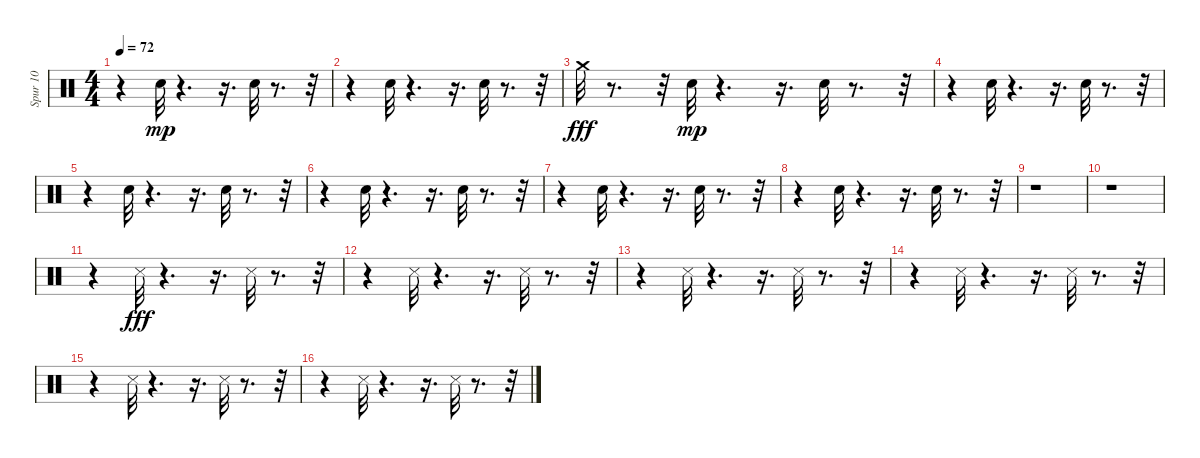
\track ("Spur 10" "Spur 10") {instrument percussion}
\staff {score}
\articulation defaults
\ts (4 4)
\tempo 72
\clef neutral
\ks c
r.4{dy mp} "Snare (hit) 2".32 r.4{d} r.16{d} "Snare (hit) 2".32 r.8{d} r.32 |
r.4 "Snare (hit) 2".32 r.4{d} r.16{d} "Snare (hit) 2".32 r.8{d} r.32 |
"Crash medium (hit)".32{dy fff} r.8{d} r.32 "Snare (hit) 2".32{dy mp} r.4{d} r.16{d} "Snare (hit) 2".32 r.8{d} r.32 |
r.4 "Snare (hit) 2".32 r.4{d} r.16{d} "Snare (hit) 2".32 r.8{d} r.32 |
r.4 "Snare (hit) 2".32 r.4{d} r.16{d} "Snare (hit) 2".32 r.8{d} r.32 |
r.4 "Snare (hit) 2".32 r.4{d} r.16{d} "Snare (hit) 2".32 r.8{d} r.32 |
r.4 "Snare (hit) 2".32 r.4{d} r.16{d} "Snare (hit) 2".32 r.8{d} r.32 |
r.4 "Snare (hit) 2".32 r.4{d} r.16{d} "Snare (hit) 2".32 r.8{d} r.32 |
r.1 |
r.1 |
r.4 "Snare (side stick) 3".32{dy fff} r.4{d} r.16{d} "Snare (side stick) 3".32 r.8{d} r.32 |
r.4 "Snare (side stick) 3".32 r.4{d} r.16{d} "Snare (side stick) 3".32 r.8{d} r.32 |
r.4 "Snare (side stick) 3".32 r.4{d} r.16{d} "Snare (side stick) 3".32 r.8{d} r.32 |
r.4 "Snare (side stick) 3".32 r.4{d} r.16{d} "Snare (side stick) 3".32 r.8{d} r.32 |
r.4 "Snare (side stick) 3".32 r.4{d} r.16{d} "Snare (side stick) 3".32 r.8{d} r.32 |
r.4 "Snare (side stick) 3".32 r.4{d} r.16{d} "Snare (side stick) 3".32 r.8{d} r.32
